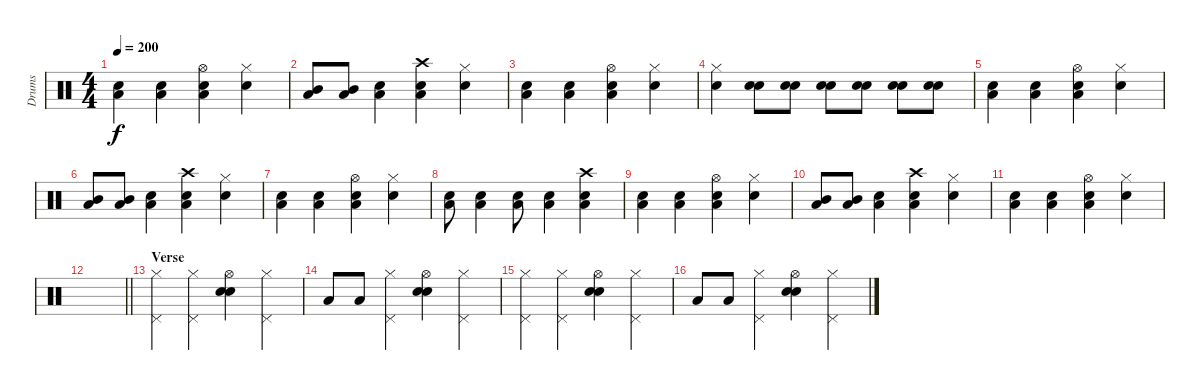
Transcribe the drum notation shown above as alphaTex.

\track ("Drums" "Drums") {instrument percussion}
\staff {score}
\articulation defaults
\ts (4 4)
\tempo 200
\clef neutral
\ks c
("Electric Snare (hit)" "Low Tom (hit)").4{dy f} ("Electric Snare (hit)" "Low Tom (hit)").4 ("Snare (hit) 2" "Low Tom (hit)" "Hi-Hat (open)").4 ("Electric Snare (hit)" "Hi-Hat (closed)").4 |
("Mid Tom (hit)" "Low Tom (hit)").8 ("Mid Tom (hit)" "Low Tom (hit)").8 ("Snare (hit) 2" "Low Tom (hit)").4 ("Electric Snare (hit)" "Low Tom (hit)" "Crash high (hit)").4 ("Electric Snare (hit)" "Hi-Hat (closed)").4 |
("Electric Snare (hit)" "Low Tom (hit)").4 ("Electric Snare (hit)" "Low Tom (hit)").4 ("Snare (hit) 2" "Low Tom (hit)" "Hi-Hat (open)").4 ("Electric Snare (hit)" "Hi-Hat (closed)").4 |
("Electric Snare (hit)" "Hi-Hat (closed)").4 ("Snare (hit) 2" "Electric Snare (hit)").8 ("Snare (hit) 2" "Electric Snare (hit)").8 ("Snare (hit) 2" "Electric Snare (hit)").8 ("Snare (hit) 2" "Electric Snare (hit)").8 ("Snare (hit) 2" "Electric Snare (hit)").8 ("Snare (hit) 2" "Electric Snare (hit)").8 |
("Electric Snare (hit)" "Low Tom (hit)").4 ("Electric Snare (hit)" "Low Tom (hit)").4 ("Snare (hit) 2" "Low Tom (hit)" "Hi-Hat (open)").4 ("Electric Snare (hit)" "Hi-Hat (closed)").4 |
("Mid Tom (hit)" "Low Tom (hit)").8 ("Mid Tom (hit)" "Low Tom (hit)").8 ("Snare (hit) 2" "Low Tom (hit)").4 ("Electric Snare (hit)" "Low Tom (hit)" "Crash high (hit)").4 ("Electric Snare (hit)" "Hi-Hat (closed)").4 |
("Electric Snare (hit)" "Low Tom (hit)").4 ("Electric Snare (hit)" "Low Tom (hit)").4 ("Snare (hit) 2" "Low Tom (hit)" "Hi-Hat (open)").4 ("Electric Snare (hit)" "Hi-Hat (closed)").4 |
("Snare (hit) 2" "Low Tom (hit)").8 ("Snare (hit) 2" "Low Tom (hit)").4 ("Snare (hit) 2" "Low Tom (hit)").8 ("Snare (hit) 2" "Low Tom (hit)").4 ("Electric Snare (hit)" "Low Tom (hit)" "Crash high (hit)").4 |
("Electric Snare (hit)" "Low Tom (hit)").4 ("Electric Snare (hit)" "Low Tom (hit)").4 ("Snare (hit) 2" "Low Tom (hit)" "Hi-Hat (open)").4 ("Electric Snare (hit)" "Hi-Hat (closed)").4 |
("Mid Tom (hit)" "Low Tom (hit)").8 ("Mid Tom (hit)" "Low Tom (hit)").8 ("Snare (hit) 2" "Low Tom (hit)").4 ("Electric Snare (hit)" "Low Tom (hit)" "Crash high (hit)").4 ("Electric Snare (hit)" "Hi-Hat (closed)").4 |
("Electric Snare (hit)" "Low Tom (hit)").4 ("Electric Snare (hit)" "Low Tom (hit)").4 ("Snare (hit) 2" "Low Tom (hit)" "Hi-Hat (open)").4 ("Electric Snare (hit)" "Hi-Hat (closed)").4 |
\barLineRight lightlight
|
\section ("" "Verse")
("Hi-Hat (closed)" "Pedal Hi-Hat (hit)").4 ("Hi-Hat (closed)" "Pedal Hi-Hat (hit)").4 ("Snare (hit) 2" "Electric Snare (hit)" "Hi-Hat (open)").4 ("Hi-Hat (closed)" "Pedal Hi-Hat (hit)").4 |
"Low Tom (hit)".8 "Low Tom (hit)".8 ("Hi-Hat (closed)" "Pedal Hi-Hat (hit)").4 ("Snare (hit) 2" "Electric Snare (hit)" "Hi-Hat (open)").4 ("Hi-Hat (closed)" "Pedal Hi-Hat (hit)").4 |
("Hi-Hat (closed)" "Pedal Hi-Hat (hit)").4 ("Hi-Hat (closed)" "Pedal Hi-Hat (hit)").4 ("Snare (hit) 2" "Electric Snare (hit)" "Hi-Hat (open)").4 ("Hi-Hat (closed)" "Pedal Hi-Hat (hit)").4 |
"Low Tom (hit)".8 "Low Tom (hit)".8 ("Hi-Hat (closed)" "Pedal Hi-Hat (hit)").4 ("Snare (hit) 2" "Electric Snare (hit)" "Hi-Hat (open)").4 ("Hi-Hat (closed)" "Pedal Hi-Hat (hit)").4
